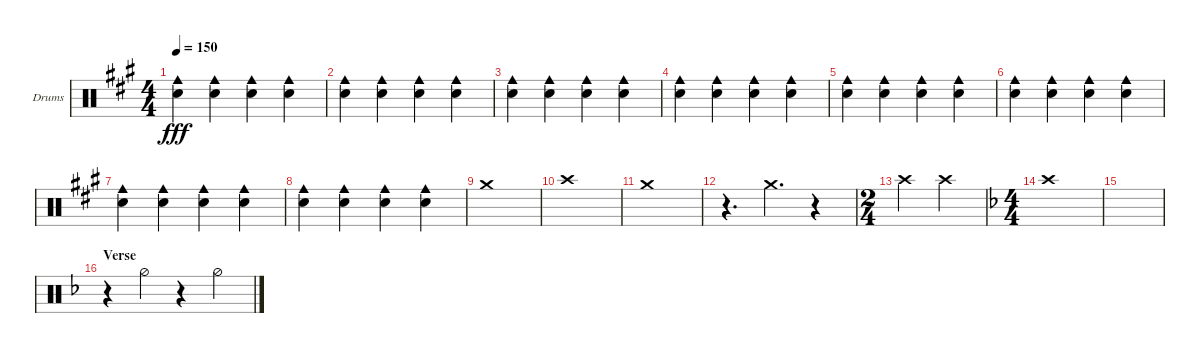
\defaultSystemsLayout 4
\bracketExtendMode groupsimilarinstruments
\firstSystemTrackNameOrientation horizontal
\otherSystemsTrackNameOrientation horizontal
\track ("Drumkit" "Drums") {instrument percussion}
\staff {score}
\articulation defaults
\ts (4 4)
\tempo 150
\clef neutral
\scale
0.333333
\ks a
("Cowbell medium (hit)" "Snare (hit) 2").4{dy fff} ("Cowbell medium (hit)" "Snare (hit) 2").4 ("Cowbell medium (hit)" "Snare (hit) 2").4 ("Cowbell medium (hit)" "Snare (hit) 2").4 |
\scale
0.333333 ("Cowbell medium (hit)" "Snare (hit) 2").4 ("Cowbell medium (hit)" "Snare (hit) 2").4 ("Cowbell medium (hit)" "Snare (hit) 2").4 ("Cowbell medium (hit)" "Snare (hit) 2").4 |
\scale
0.333333 ("Cowbell medium (hit)" "Snare (hit) 2").4 ("Cowbell medium (hit)" "Snare (hit) 2").4 ("Cowbell medium (hit)" "Snare (hit) 2").4 ("Cowbell medium (hit)" "Snare (hit) 2").4 |
\scale
0.333333 ("Cowbell medium (hit)" "Snare (hit) 2").4 ("Cowbell medium (hit)" "Snare (hit) 2").4 ("Cowbell medium (hit)" "Snare (hit) 2").4 ("Cowbell medium (hit)" "Snare (hit) 2").4 |
\scale
0.333333 ("Cowbell medium (hit)" "Snare (hit) 2").4 ("Cowbell medium (hit)" "Snare (hit) 2").4 ("Cowbell medium (hit)" "Snare (hit) 2").4 ("Cowbell medium (hit)" "Snare (hit) 2").4 |
\scale
0.333333 ("Cowbell medium (hit)" "Snare (hit) 2").4 ("Cowbell medium (hit)" "Snare (hit) 2").4 ("Cowbell medium (hit)" "Snare (hit) 2").4 ("Cowbell medium (hit)" "Snare (hit) 2").4 |
\scale
0.333333 ("Cowbell medium (hit)" "Snare (hit) 2").4 ("Cowbell medium (hit)" "Snare (hit) 2").4 ("Cowbell medium (hit)" "Snare (hit) 2").4 ("Cowbell medium (hit)" "Snare (hit) 2").4 |
\scale
0.333333 ("Cowbell medium (hit)" "Snare (hit) 2").4 ("Cowbell medium (hit)" "Snare (hit) 2").4 ("Cowbell medium (hit)" "Snare (hit) 2").4 ("Cowbell medium (hit)" "Snare (hit) 2").4 |
\scale
0.333333 "Crash medium (hit)".1 |
\scale
0.333333 "Crash high (hit)".1 |
\scale
0.333333 "Crash medium (hit)".1 |
r.4{d} "Crash medium (hit)".4{d} r.4 |
\ts (2 4)
"Crash high (hit)".4 "Crash high (hit)".4 |
\ts (4 4)
\ks f "Crash high (hit)".1
|
|
\section ("" "Verse")
r.4 "Hi-Hat (half)".4 r.4 "Hi-Hat (half)".4
